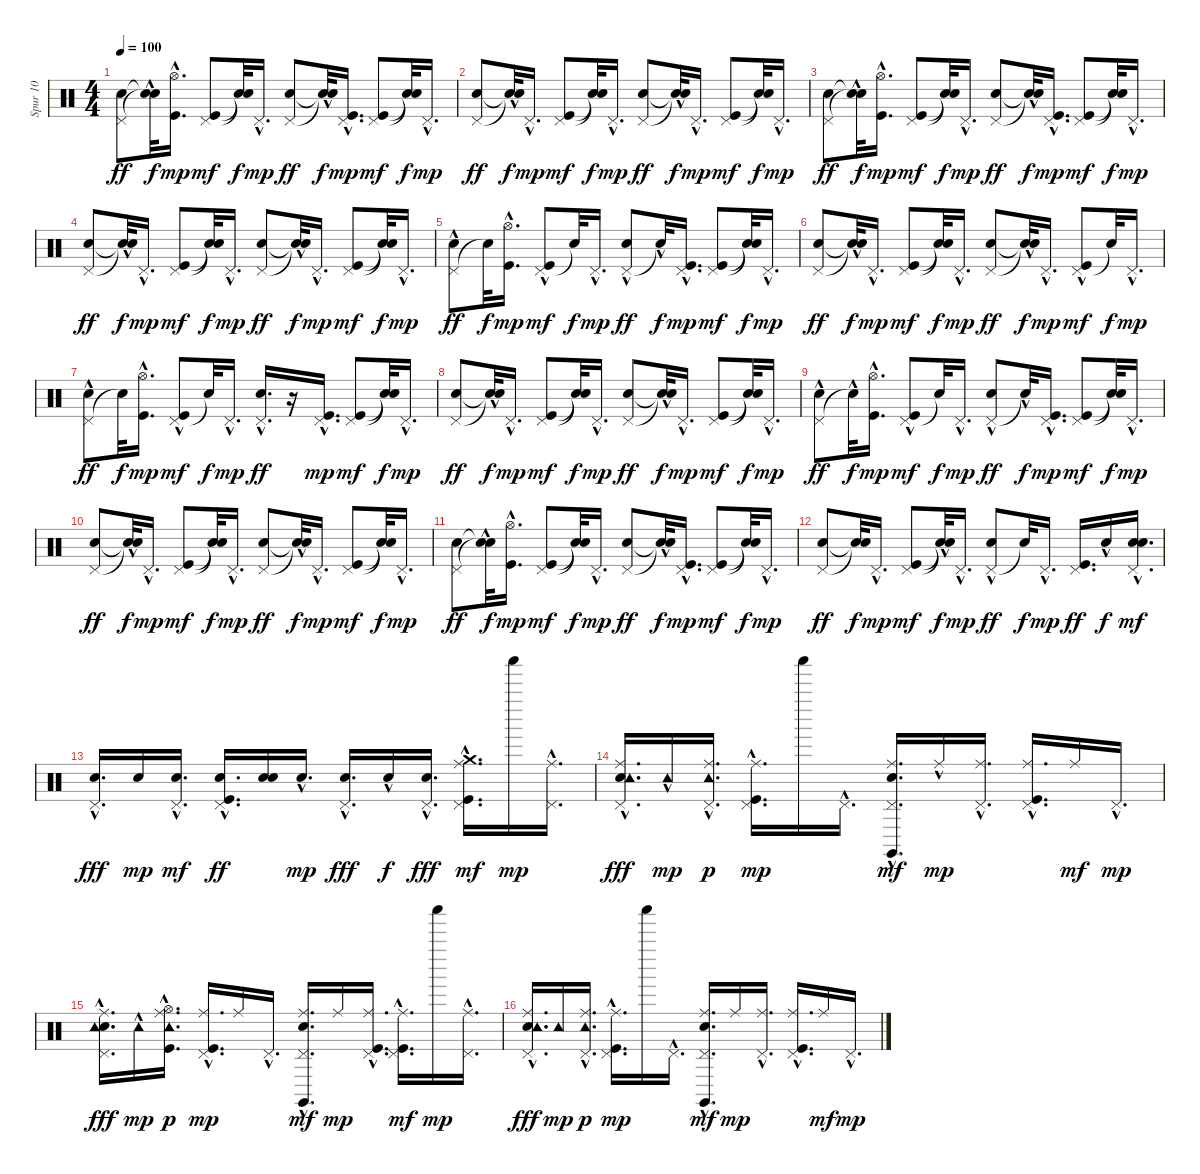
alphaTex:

\track ("Spur 10" "Spur 10") {instrument percussion}
\staff {score}
\articulation defaults
\ts (4 4)
\tempo 100
\clef neutral
\ks c
("Pedal Hi-Hat (hit)" "Hand Clap (hit)").8{dy ff} ("Snare (hit)"{t} "Snare (hit)"{hac t}).32{dy f} ("Hi-Hat (open)" "Kick (hit)"{hac}).16{d dy mp} ("Pedal Hi-Hat (hit)" "Kick (hit)").8{dy mf} ("Snare (hit)"{t} "Snare (hit)"{t}).32{dy f} "Pedal Hi-Hat (hit)"{hac}.16{d dy mp} ("Pedal Hi-Hat (hit)" "Hand Clap (hit)").8{dy ff} ("Snare (hit)"{t} "Snare (hit)"{hac t}).32{dy f} ("Pedal Hi-Hat (hit)"{hac} "Kick (hit)"{hac}).16{d dy mp} ("Pedal Hi-Hat (hit)" "Kick (hit)").8{dy mf} ("Snare (hit)"{t} "Snare (hit)"{t}).32{dy f} "Pedal Hi-Hat (hit)"{hac}.16{d dy mp} |
("Pedal Hi-Hat (hit)" "Hand Clap (hit)").8{dy ff} ("Snare (hit)"{t} "Snare (hit)"{hac t}).32{dy f} "Pedal Hi-Hat (hit)"{hac}.16{d dy mp} ("Pedal Hi-Hat (hit)" "Kick (hit)").8{dy mf} ("Snare (hit)"{t} "Snare (hit)"{t}).32{dy f} "Pedal Hi-Hat (hit)"{hac}.16{d dy mp} ("Pedal Hi-Hat (hit)" "Hand Clap (hit)").8{dy ff} ("Snare (hit)"{t} "Snare (hit)"{hac t}).32{dy f} "Pedal Hi-Hat (hit)"{hac}.16{d dy mp} ("Pedal Hi-Hat (hit)" "Kick (hit)").8{dy mf} ("Snare (hit)"{t} "Snare (hit)"{t}).32{dy f} "Pedal Hi-Hat (hit)"{hac}.16{d dy mp} |
("Pedal Hi-Hat (hit)" "Hand Clap (hit)").8{dy ff} ("Snare (hit)"{t} "Snare (hit)"{hac t}).32{dy f} ("Hi-Hat (open)" "Kick (hit)"{hac}).16{d dy mp} ("Pedal Hi-Hat (hit)" "Kick (hit)").8{dy mf} ("Snare (hit)"{t} "Snare (hit)"{t}).32{dy f} "Pedal Hi-Hat (hit)"{hac}.16{d dy mp} ("Pedal Hi-Hat (hit)" "Hand Clap (hit)").8{dy ff} ("Snare (hit)"{t} "Snare (hit)"{hac t}).32{dy f} ("Pedal Hi-Hat (hit)"{hac} "Kick (hit)"{hac}).16{d dy mp} ("Pedal Hi-Hat (hit)" "Kick (hit)").8{dy mf} ("Snare (hit)"{t} "Snare (hit)"{t}).32{dy f} "Pedal Hi-Hat (hit)"{hac}.16{d dy mp} |
("Pedal Hi-Hat (hit)" "Hand Clap (hit)").8{dy ff} ("Snare (hit)"{t} "Snare (hit)"{hac t}).32{dy f} "Pedal Hi-Hat (hit)"{hac}.16{d dy mp} ("Pedal Hi-Hat (hit)" "Kick (hit)").8{dy mf} ("Snare (hit)"{t} "Snare (hit)"{t}).32{dy f} "Pedal Hi-Hat (hit)"{hac}.16{d dy mp} ("Pedal Hi-Hat (hit)" "Hand Clap (hit)").8{dy ff} ("Snare (hit)"{t} "Snare (hit)"{hac t}).32{dy f} "Pedal Hi-Hat (hit)"{hac}.16{d dy mp} ("Pedal Hi-Hat (hit)" "Kick (hit)").8{dy mf} ("Snare (hit)"{t} "Snare (hit)"{t}).32{dy f} "Pedal Hi-Hat (hit)"{hac}.16{d dy mp} |
("Pedal Hi-Hat (hit)"{hac} "Hand Clap (hit)").8{dy ff} "Snare (hit)"{t}.32{dy f} ("Hi-Hat (open)" "Kick (hit)"{hac}).16{d dy mp} ("Pedal Hi-Hat (hit)"{hac} "Kick (hit)").8{dy mf} "Snare (hit)"{t}.32{dy f} "Pedal Hi-Hat (hit)"{hac}.16{d dy mp} ("Pedal Hi-Hat (hit)"{hac} "Hand Clap (hit)").8{dy ff} "Snare (hit)"{hac t}.32{dy f} ("Pedal Hi-Hat (hit)"{hac} "Kick (hit)"{hac}).16{d dy mp} ("Pedal Hi-Hat (hit)" "Kick (hit)").8{dy mf} ("Snare (hit)"{t} "Snare (hit)"{t}).32{dy f} "Pedal Hi-Hat (hit)"{hac}.16{d dy mp} |
("Pedal Hi-Hat (hit)" "Hand Clap (hit)").8{dy ff} ("Snare (hit)"{t} "Snare (hit)"{hac t}).32{dy f} "Pedal Hi-Hat (hit)"{hac}.16{d dy mp} ("Pedal Hi-Hat (hit)" "Kick (hit)").8{dy mf} ("Snare (hit)"{t} "Snare (hit)"{t}).32{dy f} "Pedal Hi-Hat (hit)"{hac}.16{d dy mp} ("Pedal Hi-Hat (hit)" "Hand Clap (hit)").8{dy ff} ("Snare (hit)"{t} "Snare (hit)"{hac t}).32{dy f} "Pedal Hi-Hat (hit)"{hac}.16{d dy mp} ("Pedal Hi-Hat (hit)" "Kick (hit)"{hac}).8{dy mf} "Snare (hit)"{t}.32{dy f} "Pedal Hi-Hat (hit)"{hac}.16{d dy mp} |
("Pedal Hi-Hat (hit)"{hac} "Hand Clap (hit)").8{dy ff} "Snare (hit)"{t}.32{dy f} ("Hi-Hat (open)" "Kick (hit)"{hac}).16{d dy mp} ("Pedal Hi-Hat (hit)" "Kick (hit)"{hac}).8{dy mf} "Snare (hit)"{t}.32{dy f} "Pedal Hi-Hat (hit)"{hac}.16{d dy mp} ("Pedal Hi-Hat (hit)"{hac} "Hand Clap (hit)"{hac}).16{d dy ff} r.16 ("Pedal Hi-Hat (hit)"{hac} "Kick (hit)"{hac}).16{d dy mp} ("Pedal Hi-Hat (hit)" "Kick (hit)").8{dy mf} ("Snare (hit)"{t} "Snare (hit)"{t}).32{dy f} "Pedal Hi-Hat (hit)"{hac}.16{d dy mp} |
("Pedal Hi-Hat (hit)" "Hand Clap (hit)").8{dy ff} ("Snare (hit)"{t} "Snare (hit)"{hac t}).32{dy f} "Pedal Hi-Hat (hit)"{hac}.16{d dy mp} ("Pedal Hi-Hat (hit)" "Kick (hit)").8{dy mf} ("Snare (hit)"{t} "Snare (hit)"{t}).32{dy f} "Pedal Hi-Hat (hit)"{hac}.16{d dy mp} ("Pedal Hi-Hat (hit)" "Hand Clap (hit)").8{dy ff} ("Snare (hit)"{t} "Snare (hit)"{hac t}).32{dy f} "Pedal Hi-Hat (hit)"{hac}.16{d dy mp} ("Pedal Hi-Hat (hit)" "Kick (hit)").8{dy mf} ("Snare (hit)"{t} "Snare (hit)"{t}).32{dy f} "Pedal Hi-Hat (hit)"{hac}.16{d dy mp} |
("Pedal Hi-Hat (hit)"{hac} "Hand Clap (hit)").8{dy ff} "Snare (hit)"{hac t}.32{dy f} ("Hi-Hat (open)" "Kick (hit)"{hac}).16{d dy mp} ("Pedal Hi-Hat (hit)"{hac} "Kick (hit)").8{dy mf} "Snare (hit)"{t}.32{dy f} "Pedal Hi-Hat (hit)"{hac}.16{d dy mp} ("Pedal Hi-Hat (hit)"{hac} "Hand Clap (hit)").8{dy ff} "Snare (hit)"{hac t}.32{dy f} ("Pedal Hi-Hat (hit)"{hac} "Kick (hit)"{hac}).16{d dy mp} ("Pedal Hi-Hat (hit)" "Kick (hit)").8{dy mf} ("Snare (hit)"{t} "Snare (hit)"{t}).32{dy f} "Pedal Hi-Hat (hit)"{hac}.16{d dy mp} |
("Pedal Hi-Hat (hit)" "Hand Clap (hit)").8{dy ff} ("Snare (hit)"{t} "Snare (hit)"{hac t}).32{dy f} "Pedal Hi-Hat (hit)"{hac}.16{d dy mp} ("Pedal Hi-Hat (hit)" "Kick (hit)").8{dy mf} ("Snare (hit)"{t} "Snare (hit)"{t}).32{dy f} "Pedal Hi-Hat (hit)"{hac}.16{d dy mp} ("Pedal Hi-Hat (hit)" "Hand Clap (hit)").8{dy ff} ("Snare (hit)"{t} "Snare (hit)"{hac t}).32{dy f} "Pedal Hi-Hat (hit)"{hac}.16{d dy mp} ("Pedal Hi-Hat (hit)" "Kick (hit)").8{dy mf} ("Snare (hit)"{t} "Snare (hit)"{t}).32{dy f} "Pedal Hi-Hat (hit)"{hac}.16{d dy mp} |
("Pedal Hi-Hat (hit)" "Hand Clap (hit)").8{dy ff} ("Snare (hit)"{t} "Snare (hit)"{hac t}).32{dy f} ("Hi-Hat (open)"{hac} "Kick (hit)"{hac}).16{d dy mp} ("Pedal Hi-Hat (hit)" "Kick (hit)").8{dy mf} ("Snare (hit)"{t} "Snare (hit)"{t}).32{dy f} "Pedal Hi-Hat (hit)"{hac}.16{d dy mp} ("Pedal Hi-Hat (hit)" "Hand Clap (hit)").8{dy ff} ("Snare (hit)"{t} "Snare (hit)"{hac t}).32{dy f} ("Pedal Hi-Hat (hit)"{hac} "Kick (hit)"{hac}).16{d dy mp} ("Pedal Hi-Hat (hit)" "Kick (hit)").8{dy mf} ("Snare (hit)"{t} "Snare (hit)"{t}).32{dy f} "Pedal Hi-Hat (hit)"{hac}.16{d dy mp} |
("Pedal Hi-Hat (hit)" "Hand Clap (hit)").8{dy ff} ("Snare (hit)"{t} "Snare (hit)"{t}).32{dy f} "Pedal Hi-Hat (hit)"{hac}.16{d dy mp} ("Pedal Hi-Hat (hit)" "Kick (hit)").8{dy mf} ("Snare (hit)"{t} "Snare (hit)"{hac t}).32{dy f} "Pedal Hi-Hat (hit)"{hac}.16{d dy mp} ("Pedal Hi-Hat (hit)" "Hand Clap (hit)"{hac}).8{dy ff} "Snare (hit)"{t}.32{dy f} "Pedal Hi-Hat (hit)"{hac}.16{d dy mp} ("Pedal Hi-Hat (hit)" "Kick (hit)").16{d dy ff} "Hand Clap (hit)"{hac}.16{dy f} ("Snare (hit) 2" "Hand Clap (hit)"{hac} "Pedal Hi-Hat (hit)"{hac}).16{d dy mf} |
("Pedal Hi-Hat (hit)"{hac} "Hand Clap (hit)"{hac}).16{d dy fff} "Hand Clap (hit)".16{dy mp} ("Hand Clap (hit)" "Pedal Hi-Hat (hit)"{hac}).16{d dy mf} ("Snare (hit) 2"{hac} "Pedal Hi-Hat (hit)"{hac} "Kick (hit)").16{d dy ff} ("Snare (hit) 2" "Hand Clap (hit)").16 "Hand Clap (hit)"{hac}.16{d dy mp} ("Pedal Hi-Hat (hit)" "Hand Clap (hit)"{hac}).16{d dy fff} "Hand Clap (hit)"{hac}.16{dy f} ("Pedal Hi-Hat (hit)"{hac} "Hand Clap (hit)"{hac}).16{d dy fff} ("Crash medium (hit)"{hac} "Ride (middle)"{hac} "Pedal Hi-Hat (hit)"{hac} "Kick (hit)").16{d dy mf} "Shaker (hit)".16{dy mp} ("Pedal Hi-Hat (hit)"{hac} "Ride (middle)"{hac}).16{d} |
("Pedal Hi-Hat (hit)"{hac} "Hand Clap (hit)"{hac} "Ride (middle)"{hac} "Tambourine (hit)"{hac}).16{d dy fff} "Tambourine (hit)"{hac}.16{dy mp} ("Pedal Hi-Hat (hit)"{hac} "Ride (middle)"{hac} "Tambourine (hit)"{hac}).16{d dy p} ("Pedal Hi-Hat (hit)"{hac} "Kick (hit)"{hac} "Ride (middle)"{hac}).16{d dy mp} "Shaker (hit)".16 "Pedal Hi-Hat (hit)"{hac}.16{d} ("Pedal Hi-Hat (hit)" "Hand Clap (hit)"{hac} "Ride (middle)"{hac} "Claves (hit)").16{d dy mf} "Ride (middle)"{hac}.16{dy mp} ("Pedal Hi-Hat (hit)"{hac} "Ride (middle)"{hac}).16{d} ("Pedal Hi-Hat (hit)" "Kick (hit)"{hac} "Ride (middle)"{hac}).16{d} "Ride (middle)".16{dy mf} "Pedal Hi-Hat (hit)"{hac}.16{d dy mp} |
("Pedal Hi-Hat (hit)"{hac} "Hand Clap (hit)"{hac} "Ride (middle)"{hac} "Tambourine (hit)"{hac}).16{d dy fff} "Tambourine (hit)"{hac}.16{dy mp} ("Hi-Hat (open)"{hac} "Kick (hit)"{hac} "Ride (middle)"{hac} "Tambourine (hit)"{hac}).16{d dy p} ("Pedal Hi-Hat (hit)" "Kick (hit)"{hac} "Ride (middle)"{hac}).16{d dy mp} "Ride (middle)".16 "Pedal Hi-Hat (hit)"{hac}.16{d} ("Pedal Hi-Hat (hit)"{hac} "Hand Clap (hit)"{hac} "Ride (middle)"{hac} "Claves (hit)").16{d dy mf} "Ride (middle)".16{dy mp} ("Pedal Hi-Hat (hit)"{hac} "Kick (hit)"{hac} "Ride (middle)"{hac}).16{d} ("Ride (middle)" "Pedal Hi-Hat (hit)"{hac} "Kick (hit)"{hac}).16{d dy mf} "Shaker (hit)".16{dy mp} ("Pedal Hi-Hat (hit)"{hac} "Ride (middle)"{hac}).16{d} |
("Pedal Hi-Hat (hit)"{hac} "Hand Clap (hit)" "Ride (middle)"{hac} "Tambourine (hit)"{hac}).16{d dy fff} "Tambourine (hit)".16{dy mp} ("Pedal Hi-Hat (hit)"{hac} "Ride (middle)"{hac} "Tambourine (hit)"{hac}).16{d dy p} ("Pedal Hi-Hat (hit)" "Kick (hit)"{hac} "Ride (middle)").16{d dy mp} "Shaker (hit)".16 "Pedal Hi-Hat (hit)"{hac}.16{d} ("Pedal Hi-Hat (hit)"{hac} "Hand Clap (hit)"{hac} "Ride (middle)"{hac} "Claves (hit)").16{d dy mf} "Ride (middle)".16{dy mp} ("Pedal Hi-Hat (hit)"{hac} "Ride (middle)"{hac}).16{d} ("Pedal Hi-Hat (hit)" "Kick (hit)"{hac} "Ride (middle)"{hac}).16{d} "Ride (middle)".16{dy mf} "Pedal Hi-Hat (hit)"{hac}.16{d dy mp}
